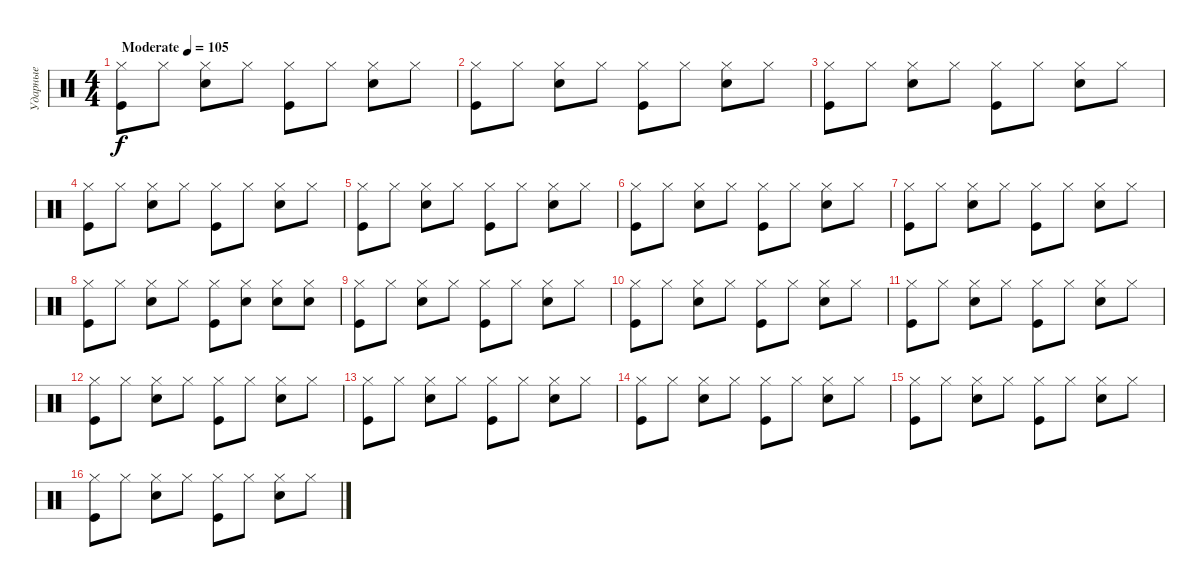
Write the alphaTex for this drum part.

\track ("Ударные" "Ударные") {instrument percussion}
\staff {score}
\articulation defaults
\ts (4 4)
\tempo (105 "Moderate")
\clef neutral
\ks c
("Kick (hit)" "Hi-Hat (closed)").8{dy f} "Hi-Hat (closed)".8 ("Snare (hit) 2" "Hi-Hat (closed)").8 "Hi-Hat (closed)".8 ("Kick (hit)" "Hi-Hat (closed)").8 "Hi-Hat (closed)".8 ("Snare (hit) 2" "Hi-Hat (closed)").8 "Hi-Hat (closed)".8 |
("Kick (hit)" "Hi-Hat (closed)").8 "Hi-Hat (closed)".8 ("Snare (hit) 2" "Hi-Hat (closed)").8 "Hi-Hat (closed)".8 ("Kick (hit)" "Hi-Hat (closed)").8 "Hi-Hat (closed)".8 ("Snare (hit) 2" "Hi-Hat (closed)").8 "Hi-Hat (closed)".8 |
("Kick (hit)" "Hi-Hat (closed)").8 "Hi-Hat (closed)".8 ("Snare (hit) 2" "Hi-Hat (closed)").8 "Hi-Hat (closed)".8 ("Kick (hit)" "Hi-Hat (closed)").8 "Hi-Hat (closed)".8 ("Snare (hit) 2" "Hi-Hat (closed)").8 "Hi-Hat (closed)".8 |
("Kick (hit)" "Hi-Hat (closed)").8 "Hi-Hat (closed)".8 ("Snare (hit) 2" "Hi-Hat (closed)").8 "Hi-Hat (closed)".8 ("Kick (hit)" "Hi-Hat (closed)").8 "Hi-Hat (closed)".8 ("Snare (hit) 2" "Hi-Hat (closed)").8 "Hi-Hat (closed)".8 |
("Kick (hit)" "Hi-Hat (closed)").8 "Hi-Hat (closed)".8 ("Snare (hit) 2" "Hi-Hat (closed)").8 "Hi-Hat (closed)".8 ("Kick (hit)" "Hi-Hat (closed)").8 "Hi-Hat (closed)".8 ("Snare (hit) 2" "Hi-Hat (closed)").8 "Hi-Hat (closed)".8 |
("Kick (hit)" "Hi-Hat (closed)").8 "Hi-Hat (closed)".8 ("Snare (hit) 2" "Hi-Hat (closed)").8 "Hi-Hat (closed)".8 ("Kick (hit)" "Hi-Hat (closed)").8 "Hi-Hat (closed)".8 ("Snare (hit) 2" "Hi-Hat (closed)").8 "Hi-Hat (closed)".8 |
("Kick (hit)" "Hi-Hat (closed)").8 "Hi-Hat (closed)".8 ("Snare (hit) 2" "Hi-Hat (closed)").8 "Hi-Hat (closed)".8 ("Kick (hit)" "Hi-Hat (closed)").8 "Hi-Hat (closed)".8 ("Snare (hit) 2" "Hi-Hat (closed)").8 "Hi-Hat (closed)".8 |
("Kick (hit)" "Hi-Hat (closed)").8 "Hi-Hat (closed)".8 ("Snare (hit) 2" "Hi-Hat (closed)").8 "Hi-Hat (closed)".8 ("Kick (hit)" "Hi-Hat (closed)").8 ("Hi-Hat (closed)" "Snare (hit) 2").8 ("Snare (hit) 2" "Hi-Hat (closed)").8 ("Hi-Hat (closed)" "Snare (hit) 2").8 |
("Kick (hit)" "Hi-Hat (closed)").8 "Hi-Hat (closed)".8 ("Snare (hit) 2" "Hi-Hat (closed)").8 "Hi-Hat (closed)".8 ("Kick (hit)" "Hi-Hat (closed)").8 "Hi-Hat (closed)".8 ("Snare (hit) 2" "Hi-Hat (closed)").8 "Hi-Hat (closed)".8 |
("Kick (hit)" "Hi-Hat (closed)").8 "Hi-Hat (closed)".8 ("Snare (hit) 2" "Hi-Hat (closed)").8 "Hi-Hat (closed)".8 ("Kick (hit)" "Hi-Hat (closed)").8 "Hi-Hat (closed)".8 ("Snare (hit) 2" "Hi-Hat (closed)").8 "Hi-Hat (closed)".8 |
("Kick (hit)" "Hi-Hat (closed)").8 "Hi-Hat (closed)".8 ("Snare (hit) 2" "Hi-Hat (closed)").8 "Hi-Hat (closed)".8 ("Kick (hit)" "Hi-Hat (closed)").8 "Hi-Hat (closed)".8 ("Snare (hit) 2" "Hi-Hat (closed)").8 "Hi-Hat (closed)".8 |
("Kick (hit)" "Hi-Hat (closed)").8 "Hi-Hat (closed)".8 ("Snare (hit) 2" "Hi-Hat (closed)").8 "Hi-Hat (closed)".8 ("Kick (hit)" "Hi-Hat (closed)").8 "Hi-Hat (closed)".8 ("Snare (hit) 2" "Hi-Hat (closed)").8 "Hi-Hat (closed)".8 |
("Kick (hit)" "Hi-Hat (closed)").8 "Hi-Hat (closed)".8 ("Snare (hit) 2" "Hi-Hat (closed)").8 "Hi-Hat (closed)".8 ("Kick (hit)" "Hi-Hat (closed)").8 "Hi-Hat (closed)".8 ("Snare (hit) 2" "Hi-Hat (closed)").8 "Hi-Hat (closed)".8 |
("Kick (hit)" "Hi-Hat (closed)").8 "Hi-Hat (closed)".8 ("Snare (hit) 2" "Hi-Hat (closed)").8 "Hi-Hat (closed)".8 ("Kick (hit)" "Hi-Hat (closed)").8 "Hi-Hat (closed)".8 ("Snare (hit) 2" "Hi-Hat (closed)").8 "Hi-Hat (closed)".8 |
("Kick (hit)" "Hi-Hat (closed)").8 "Hi-Hat (closed)".8 ("Snare (hit) 2" "Hi-Hat (closed)").8 "Hi-Hat (closed)".8 ("Kick (hit)" "Hi-Hat (closed)").8 "Hi-Hat (closed)".8 ("Snare (hit) 2" "Hi-Hat (closed)").8 "Hi-Hat (closed)".8 |
("Kick (hit)" "Hi-Hat (closed)").8 "Hi-Hat (closed)".8 ("Snare (hit) 2" "Hi-Hat (closed)").8 "Hi-Hat (closed)".8 ("Kick (hit)" "Hi-Hat (closed)").8 "Hi-Hat (closed)".8 ("Snare (hit) 2" "Hi-Hat (closed)").8 "Hi-Hat (closed)".8
